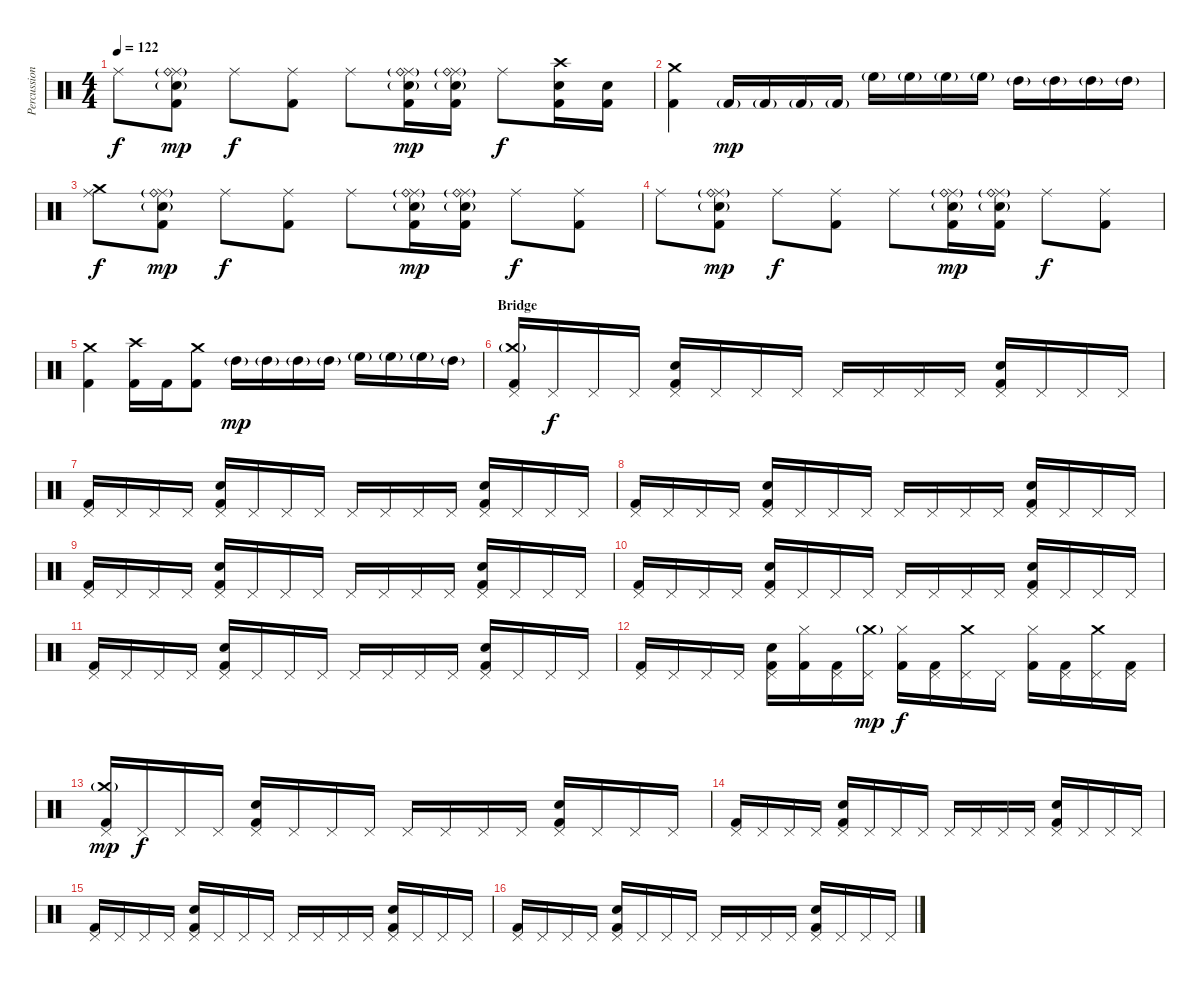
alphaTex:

\track ("Percussion" "Percussion") {instrument percussion}
\staff {score}
\articulation defaults
\ts (4 4)
\tempo 122
\clef neutral
\ks c "Ride (middle)".8{dy f}
("Snare (hit) 2"{g} "Ride (middle)"{g} "Ride (bell)" "Kick (hit) 2").8{dy mp} "Ride (middle)".8{dy f} ("Ride (middle)" "Kick (hit) 2").8 "Ride (middle)".8 ("Snare (hit) 2"{g} "Ride (middle)"{g} "Ride (bell)" "Kick (hit) 2").16{dy mp} ("Snare (hit) 2"{g} "Ride (middle)"{g} "Ride (bell)" "Kick (hit) 2").16 "Ride (middle)".8{dy f} ("Snare (hit) 2" "Crash high (hit)" "Kick (hit) 2").16 ("Snare (hit) 2" "Kick (hit) 2").16 |
("Crash medium (hit)" "Kick (hit) 2").4 "Kick (hit) 2"{g}.16{dy mp} "Kick (hit) 2"{g}.16 "Kick (hit) 2"{g}.16 "Kick (hit) 2"{g}.16 "High Floor Tom (hit)"{g}.16 "High Floor Tom (hit)"{g}.16 "High Floor Tom (hit)"{g}.16 "High Floor Tom (hit)"{g}.16 "High Tom (hit)"{g}.16 "High Tom (hit)"{g}.16 "High Tom (hit)"{g}.16 "High Tom (hit)"{g}.16 |
("Crash medium (hit)" "Ride (middle)").8{dy f} ("Snare (hit) 2"{g} "Ride (middle)"{g} "Ride (bell)" "Kick (hit) 2").8{dy mp} "Ride (middle)".8{dy f} ("Ride (middle)" "Kick (hit) 2").8 "Ride (middle)".8 ("Snare (hit) 2"{g} "Ride (middle)"{g} "Ride (bell)" "Kick (hit) 2").16{dy mp} ("Snare (hit) 2"{g} "Ride (middle)"{g} "Ride (bell)" "Kick (hit) 2").16 "Ride (middle)".8{dy f} ("Ride (middle)" "Kick (hit) 2").8 |
"Ride (middle)".8 ("Snare (hit) 2"{g} "Ride (middle)"{g} "Ride (bell)" "Kick (hit) 2").8{dy mp} "Ride (middle)".8{dy f} ("Ride (middle)" "Kick (hit) 2").8 "Ride (middle)".8 ("Snare (hit) 2"{g} "Ride (middle)"{g} "Ride (bell)" "Kick (hit) 2").16{dy mp} ("Snare (hit) 2"{g} "Ride (middle)"{g} "Ride (bell)" "Kick (hit) 2").16 "Ride (middle)".8{dy f} ("Ride (middle)" "Kick (hit) 2").8 |
("Crash medium (hit)" "Kick (hit) 2").4 ("Crash high (hit)" "Kick (hit) 2").16 "Kick (hit) 2".16 ("Crash medium (hit)" "Kick (hit) 2").8 "High Tom (hit)"{g}.16{dy mp} "High Tom (hit)"{g}.16 "High Tom (hit)"{g}.16 "High Tom (hit)"{g}.16 "High Floor Tom (hit)"{g}.16 "High Floor Tom (hit)"{g}.16 "High Floor Tom (hit)"{g}.16 "High Tom (hit)"{g}.16 |
\section ("" "Bridge")
("Crash medium (hit)"{g} "Pedal Hi-Hat (hit)" "Kick (hit) 2").16{volume 5} "Pedal Hi-Hat (hit)".16{dy f} "Pedal Hi-Hat (hit)".16 "Pedal Hi-Hat (hit)".16 ("Pedal Hi-Hat (hit)" "Snare (hit) 2" "Kick (hit) 2").16 "Pedal Hi-Hat (hit)".16 "Pedal Hi-Hat (hit)".16 "Pedal Hi-Hat (hit)".16 "Pedal Hi-Hat (hit)".16 "Pedal Hi-Hat (hit)".16 "Pedal Hi-Hat (hit)".16 "Pedal Hi-Hat (hit)".16 ("Pedal Hi-Hat (hit)" "Snare (hit) 2" "Kick (hit) 2").16 "Pedal Hi-Hat (hit)".16 "Pedal Hi-Hat (hit)".16 "Pedal Hi-Hat (hit)".16 |
("Pedal Hi-Hat (hit)" "Kick (hit) 2").16 "Pedal Hi-Hat (hit)".16 "Pedal Hi-Hat (hit)".16 "Pedal Hi-Hat (hit)".16 ("Pedal Hi-Hat (hit)" "Snare (hit) 2" "Kick (hit) 2").16 "Pedal Hi-Hat (hit)".16 "Pedal Hi-Hat (hit)".16 "Pedal Hi-Hat (hit)".16 "Pedal Hi-Hat (hit)".16 "Pedal Hi-Hat (hit)".16 "Pedal Hi-Hat (hit)".16 "Pedal Hi-Hat (hit)".16 ("Pedal Hi-Hat (hit)" "Snare (hit) 2" "Kick (hit) 2").16 "Pedal Hi-Hat (hit)".16 "Pedal Hi-Hat (hit)".16 "Pedal Hi-Hat (hit)".16 |
("Pedal Hi-Hat (hit)" "Kick (hit) 2").16 "Pedal Hi-Hat (hit)".16 "Pedal Hi-Hat (hit)".16 "Pedal Hi-Hat (hit)".16 ("Pedal Hi-Hat (hit)" "Snare (hit) 2" "Kick (hit) 2").16 "Pedal Hi-Hat (hit)".16 "Pedal Hi-Hat (hit)".16 "Pedal Hi-Hat (hit)".16 "Pedal Hi-Hat (hit)".16 "Pedal Hi-Hat (hit)".16 "Pedal Hi-Hat (hit)".16 "Pedal Hi-Hat (hit)".16 ("Pedal Hi-Hat (hit)" "Snare (hit) 2" "Kick (hit) 2").16 "Pedal Hi-Hat (hit)".16 "Pedal Hi-Hat (hit)".16 "Pedal Hi-Hat (hit)".16 |
("Pedal Hi-Hat (hit)" "Kick (hit) 2").16 "Pedal Hi-Hat (hit)".16 "Pedal Hi-Hat (hit)".16 "Pedal Hi-Hat (hit)".16 ("Pedal Hi-Hat (hit)" "Snare (hit) 2" "Kick (hit) 2").16 "Pedal Hi-Hat (hit)".16 "Pedal Hi-Hat (hit)".16 "Pedal Hi-Hat (hit)".16 "Pedal Hi-Hat (hit)".16 "Pedal Hi-Hat (hit)".16 "Pedal Hi-Hat (hit)".16 "Pedal Hi-Hat (hit)".16 ("Pedal Hi-Hat (hit)" "Snare (hit) 2" "Kick (hit) 2").16 "Pedal Hi-Hat (hit)".16 "Pedal Hi-Hat (hit)".16 "Pedal Hi-Hat (hit)".16 |
("Pedal Hi-Hat (hit)" "Kick (hit) 2").16 "Pedal Hi-Hat (hit)".16 "Pedal Hi-Hat (hit)".16 "Pedal Hi-Hat (hit)".16 ("Pedal Hi-Hat (hit)" "Snare (hit) 2" "Kick (hit) 2").16 "Pedal Hi-Hat (hit)".16 "Pedal Hi-Hat (hit)".16 "Pedal Hi-Hat (hit)".16 "Pedal Hi-Hat (hit)".16 "Pedal Hi-Hat (hit)".16 "Pedal Hi-Hat (hit)".16 "Pedal Hi-Hat (hit)".16 ("Pedal Hi-Hat (hit)" "Snare (hit) 2" "Kick (hit) 2").16 "Pedal Hi-Hat (hit)".16 "Pedal Hi-Hat (hit)".16 "Pedal Hi-Hat (hit)".16 |
("Pedal Hi-Hat (hit)" "Kick (hit) 2").16 "Pedal Hi-Hat (hit)".16 "Pedal Hi-Hat (hit)".16 "Pedal Hi-Hat (hit)".16 ("Pedal Hi-Hat (hit)" "Snare (hit) 2" "Kick (hit) 2").16 "Pedal Hi-Hat (hit)".16 "Pedal Hi-Hat (hit)".16 "Pedal Hi-Hat (hit)".16 "Pedal Hi-Hat (hit)".16 "Pedal Hi-Hat (hit)".16 "Pedal Hi-Hat (hit)".16 "Pedal Hi-Hat (hit)".16 ("Pedal Hi-Hat (hit)" "Snare (hit) 2" "Kick (hit) 2").16 "Pedal Hi-Hat (hit)".16 "Pedal Hi-Hat (hit)".16 "Pedal Hi-Hat (hit)".16 |
("Pedal Hi-Hat (hit)" "Kick (hit) 2").16 "Pedal Hi-Hat (hit)".16 "Pedal Hi-Hat (hit)".16 "Pedal Hi-Hat (hit)".16 ("Pedal Hi-Hat (hit)" "Snare (hit) 2" "Kick (hit) 2").16 ("Hi-Hat (closed)" "Kick (hit) 2").16 ("Pedal Hi-Hat (hit)" "Kick (hit) 2").16 ("Crash medium (hit)"{g} "Pedal Hi-Hat (hit)").16{dy mp} ("Hi-Hat (closed)" "Kick (hit) 2").16{dy f} ("Pedal Hi-Hat (hit)" "Kick (hit) 2").16 ("Crash medium (hit)" "Pedal Hi-Hat (hit)").16 "Pedal Hi-Hat (hit)".16 ("Hi-Hat (closed)" "Kick (hit) 2").16 ("Pedal Hi-Hat (hit)" "Kick (hit) 2").16 ("Crash medium (hit)" "Pedal Hi-Hat (hit)").16 ("Pedal Hi-Hat (hit)" "Kick (hit) 2").16 |
("Crash medium (hit)"{g} "Pedal Hi-Hat (hit)" "Kick (hit) 2").16{dy mp} "Pedal Hi-Hat (hit)".16{dy f} "Pedal Hi-Hat (hit)".16 "Pedal Hi-Hat (hit)".16 ("Pedal Hi-Hat (hit)" "Snare (hit) 2" "Kick (hit) 2").16 "Pedal Hi-Hat (hit)".16 "Pedal Hi-Hat (hit)".16 "Pedal Hi-Hat (hit)".16 "Pedal Hi-Hat (hit)".16 "Pedal Hi-Hat (hit)".16 "Pedal Hi-Hat (hit)".16 "Pedal Hi-Hat (hit)".16 ("Pedal Hi-Hat (hit)" "Snare (hit) 2" "Kick (hit) 2").16 "Pedal Hi-Hat (hit)".16 "Pedal Hi-Hat (hit)".16 "Pedal Hi-Hat (hit)".16 |
("Pedal Hi-Hat (hit)" "Kick (hit) 2").16 "Pedal Hi-Hat (hit)".16 "Pedal Hi-Hat (hit)".16 "Pedal Hi-Hat (hit)".16 ("Pedal Hi-Hat (hit)" "Snare (hit) 2" "Kick (hit) 2").16 "Pedal Hi-Hat (hit)".16 "Pedal Hi-Hat (hit)".16 "Pedal Hi-Hat (hit)".16 "Pedal Hi-Hat (hit)".16 "Pedal Hi-Hat (hit)".16 "Pedal Hi-Hat (hit)".16 "Pedal Hi-Hat (hit)".16 ("Pedal Hi-Hat (hit)" "Snare (hit) 2" "Kick (hit) 2").16 "Pedal Hi-Hat (hit)".16 "Pedal Hi-Hat (hit)".16 "Pedal Hi-Hat (hit)".16 |
("Pedal Hi-Hat (hit)" "Kick (hit) 2").16 "Pedal Hi-Hat (hit)".16 "Pedal Hi-Hat (hit)".16 "Pedal Hi-Hat (hit)".16 ("Pedal Hi-Hat (hit)" "Snare (hit) 2" "Kick (hit) 2").16 "Pedal Hi-Hat (hit)".16 "Pedal Hi-Hat (hit)".16 "Pedal Hi-Hat (hit)".16 "Pedal Hi-Hat (hit)".16 "Pedal Hi-Hat (hit)".16 "Pedal Hi-Hat (hit)".16 "Pedal Hi-Hat (hit)".16 ("Pedal Hi-Hat (hit)" "Snare (hit) 2" "Kick (hit) 2").16 "Pedal Hi-Hat (hit)".16 "Pedal Hi-Hat (hit)".16 "Pedal Hi-Hat (hit)".16 |
("Pedal Hi-Hat (hit)" "Kick (hit) 2").16 "Pedal Hi-Hat (hit)".16 "Pedal Hi-Hat (hit)".16 "Pedal Hi-Hat (hit)".16 ("Pedal Hi-Hat (hit)" "Snare (hit) 2" "Kick (hit) 2").16 "Pedal Hi-Hat (hit)".16 "Pedal Hi-Hat (hit)".16 "Pedal Hi-Hat (hit)".16 "Pedal Hi-Hat (hit)".16 "Pedal Hi-Hat (hit)".16 "Pedal Hi-Hat (hit)".16 "Pedal Hi-Hat (hit)".16 ("Pedal Hi-Hat (hit)" "Snare (hit) 2" "Kick (hit) 2").16 "Pedal Hi-Hat (hit)".16 "Pedal Hi-Hat (hit)".16 "Pedal Hi-Hat (hit)".16
